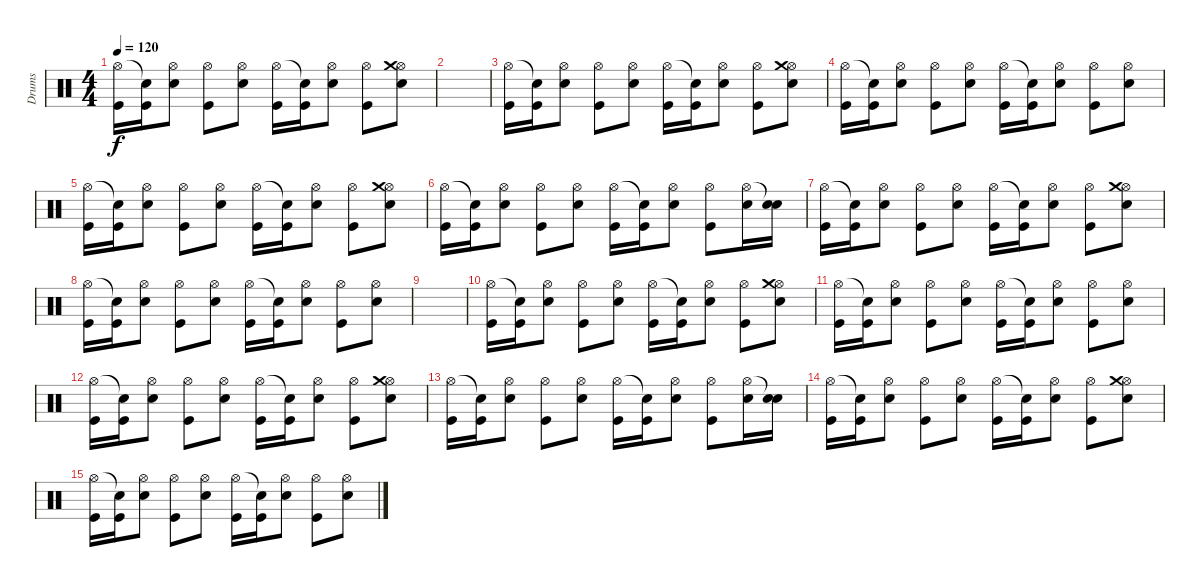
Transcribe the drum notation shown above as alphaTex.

\track ("Drums" "Drums") {instrument percussion}
\staff {score}
\articulation defaults
\ts (4 4)
\tempo 120
\clef neutral
\ks c
("Hi-Hat (open)" "Kick (hit)").16{dy f} ("Snare (hit)"{t} "Kick (hit)").16 ("Hi-Hat (open)" "Electric Snare (hit)").8 ("Hi-Hat (open)" "Kick (hit)").8 ("Hi-Hat (open)" "Electric Snare (hit)").8 ("Hi-Hat (open)" "Kick (hit)").16 ("Snare (hit)"{t} "Kick (hit)").16 ("Hi-Hat (open)" "Electric Snare (hit)").8 ("Hi-Hat (open)" "Kick (hit)").8 ("Hi-Hat (open)" "Crash medium (hit)" "Electric Snare (hit)").8 |
|
("Hi-Hat (open)" "Kick (hit)").16 ("Snare (hit)"{t} "Kick (hit)").16 ("Hi-Hat (open)" "Electric Snare (hit)").8 ("Hi-Hat (open)" "Kick (hit)").8 ("Hi-Hat (open)" "Electric Snare (hit)").8 ("Hi-Hat (open)" "Kick (hit)").16 ("Snare (hit)"{t} "Kick (hit)").16 ("Hi-Hat (open)" "Electric Snare (hit)").8 ("Hi-Hat (open)" "Kick (hit)").8 ("Hi-Hat (open)" "Crash medium (hit)" "Electric Snare (hit)").8 |
("Hi-Hat (open)" "Kick (hit)").16 ("Snare (hit)"{t} "Kick (hit)").16 ("Hi-Hat (open)" "Electric Snare (hit)").8 ("Hi-Hat (open)" "Kick (hit)").8 ("Hi-Hat (open)" "Electric Snare (hit)").8 ("Hi-Hat (open)" "Kick (hit)").16 ("Snare (hit)"{t} "Kick (hit)").16 ("Hi-Hat (open)" "Electric Snare (hit)").8 ("Hi-Hat (open)" "Kick (hit)").8 ("Hi-Hat (open)" "Electric Snare (hit)").8 |
("Hi-Hat (open)" "Kick (hit)").16 ("Snare (hit)"{t} "Kick (hit)").16 ("Hi-Hat (open)" "Electric Snare (hit)").8 ("Hi-Hat (open)" "Kick (hit)").8 ("Hi-Hat (open)" "Electric Snare (hit)").8 ("Hi-Hat (open)" "Kick (hit)").16 ("Snare (hit)"{t} "Kick (hit)").16 ("Hi-Hat (open)" "Electric Snare (hit)").8 ("Hi-Hat (open)" "Kick (hit)").8 ("Hi-Hat (open)" "Crash medium (hit)" "Electric Snare (hit)").8 |
("Hi-Hat (open)" "Kick (hit)").16 ("Snare (hit)"{t} "Kick (hit)").16 ("Hi-Hat (open)" "Electric Snare (hit)").8 ("Hi-Hat (open)" "Kick (hit)").8 ("Hi-Hat (open)" "Electric Snare (hit)").8 ("Hi-Hat (open)" "Kick (hit)").16 ("Snare (hit)"{t} "Kick (hit)").16 ("Hi-Hat (open)" "Electric Snare (hit)").8 ("Hi-Hat (open)" "Kick (hit)").8 ("Hi-Hat (open)" "Electric Snare (hit)").16 ("Snare (hit)"{t} "Electric Snare (hit)").16 |
("Hi-Hat (open)" "Kick (hit)").16 ("Snare (hit)"{t} "Kick (hit)").16 ("Hi-Hat (open)" "Electric Snare (hit)").8 ("Hi-Hat (open)" "Kick (hit)").8 ("Hi-Hat (open)" "Electric Snare (hit)").8 ("Hi-Hat (open)" "Kick (hit)").16 ("Snare (hit)"{t} "Kick (hit)").16 ("Hi-Hat (open)" "Electric Snare (hit)").8 ("Hi-Hat (open)" "Kick (hit)").8 ("Hi-Hat (open)" "Crash medium (hit)" "Electric Snare (hit)").8 |
("Hi-Hat (open)" "Kick (hit)").16 ("Snare (hit)"{t} "Kick (hit)").16 ("Hi-Hat (open)" "Electric Snare (hit)").8 ("Hi-Hat (open)" "Kick (hit)").8 ("Hi-Hat (open)" "Electric Snare (hit)").8 ("Hi-Hat (open)" "Kick (hit)").16 ("Snare (hit)"{t} "Kick (hit)").16 ("Hi-Hat (open)" "Electric Snare (hit)").8 ("Hi-Hat (open)" "Kick (hit)").8 ("Hi-Hat (open)" "Electric Snare (hit)").8 |
|
("Hi-Hat (open)" "Kick (hit)").16 ("Snare (hit)"{t} "Kick (hit)").16 ("Hi-Hat (open)" "Electric Snare (hit)").8 ("Hi-Hat (open)" "Kick (hit)").8 ("Hi-Hat (open)" "Electric Snare (hit)").8 ("Hi-Hat (open)" "Kick (hit)").16 ("Snare (hit)"{t} "Kick (hit)").16 ("Hi-Hat (open)" "Electric Snare (hit)").8 ("Hi-Hat (open)" "Kick (hit)").8 ("Hi-Hat (open)" "Crash medium (hit)" "Electric Snare (hit)").8 |
("Hi-Hat (open)" "Kick (hit)").16 ("Snare (hit)"{t} "Kick (hit)").16 ("Hi-Hat (open)" "Electric Snare (hit)").8 ("Hi-Hat (open)" "Kick (hit)").8 ("Hi-Hat (open)" "Electric Snare (hit)").8 ("Hi-Hat (open)" "Kick (hit)").16 ("Snare (hit)"{t} "Kick (hit)").16 ("Hi-Hat (open)" "Electric Snare (hit)").8 ("Hi-Hat (open)" "Kick (hit)").8 ("Hi-Hat (open)" "Electric Snare (hit)").8 |
("Hi-Hat (open)" "Kick (hit)").16 ("Snare (hit)"{t} "Kick (hit)").16 ("Hi-Hat (open)" "Electric Snare (hit)").8 ("Hi-Hat (open)" "Kick (hit)").8 ("Hi-Hat (open)" "Electric Snare (hit)").8 ("Hi-Hat (open)" "Kick (hit)").16 ("Snare (hit)"{t} "Kick (hit)").16 ("Hi-Hat (open)" "Electric Snare (hit)").8 ("Hi-Hat (open)" "Kick (hit)").8 ("Hi-Hat (open)" "Crash medium (hit)" "Electric Snare (hit)").8 |
("Hi-Hat (open)" "Kick (hit)").16 ("Snare (hit)"{t} "Kick (hit)").16 ("Hi-Hat (open)" "Electric Snare (hit)").8 ("Hi-Hat (open)" "Kick (hit)").8 ("Hi-Hat (open)" "Electric Snare (hit)").8 ("Hi-Hat (open)" "Kick (hit)").16 ("Snare (hit)"{t} "Kick (hit)").16 ("Hi-Hat (open)" "Electric Snare (hit)").8 ("Hi-Hat (open)" "Kick (hit)").8 ("Hi-Hat (open)" "Electric Snare (hit)").16 ("Snare (hit)"{t} "Electric Snare (hit)").16 |
("Hi-Hat (open)" "Kick (hit)").16 ("Snare (hit)"{t} "Kick (hit)").16 ("Hi-Hat (open)" "Electric Snare (hit)").8 ("Hi-Hat (open)" "Kick (hit)").8 ("Hi-Hat (open)" "Electric Snare (hit)").8 ("Hi-Hat (open)" "Kick (hit)").16 ("Snare (hit)"{t} "Kick (hit)").16 ("Hi-Hat (open)" "Electric Snare (hit)").8 ("Hi-Hat (open)" "Kick (hit)").8 ("Hi-Hat (open)" "Crash medium (hit)" "Electric Snare (hit)").8 |
("Hi-Hat (open)" "Kick (hit)").16 ("Snare (hit)"{t} "Kick (hit)").16 ("Hi-Hat (open)" "Electric Snare (hit)").8 ("Hi-Hat (open)" "Kick (hit)").8 ("Hi-Hat (open)" "Electric Snare (hit)").8 ("Hi-Hat (open)" "Kick (hit)").16 ("Snare (hit)"{t} "Kick (hit)").16 ("Hi-Hat (open)" "Electric Snare (hit)").8 ("Hi-Hat (open)" "Kick (hit)").8 ("Hi-Hat (open)" "Electric Snare (hit)").8
